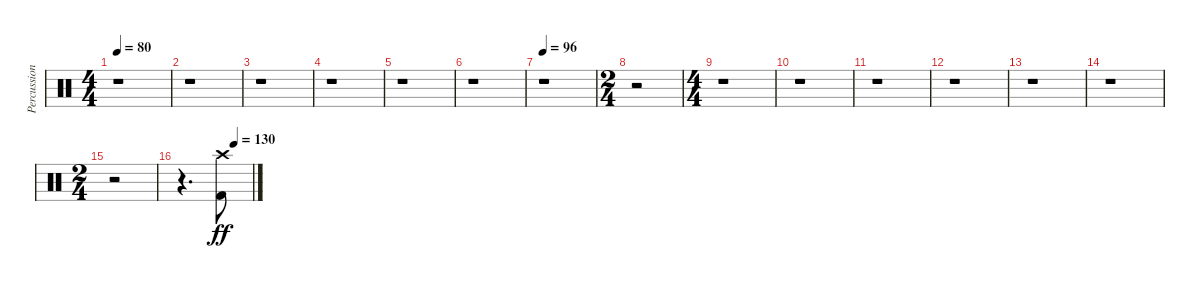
\track ("Percussion" "Percussion") {instrument percussion}
\staff {score}
\articulation defaults
\ts (4 4)
\tempo 80
\clef neutral
\ks c
r.1{dy p} |
r.1 |
r.1 |
r.1 |
r.1 |
r.1 |
\tempo 96
r.1 |
\ts (2 4)
r.2 |
\ts (4 4)
r.1 |
r.1 |
r.1 |
r.1 |
r.1 |
r.1 |
\ts (2 4)
r.2 |
\tempo (130 0.75)
r.4{d} ("Kick (hit) 2" "Crash high (hit)").8{dy ff}
